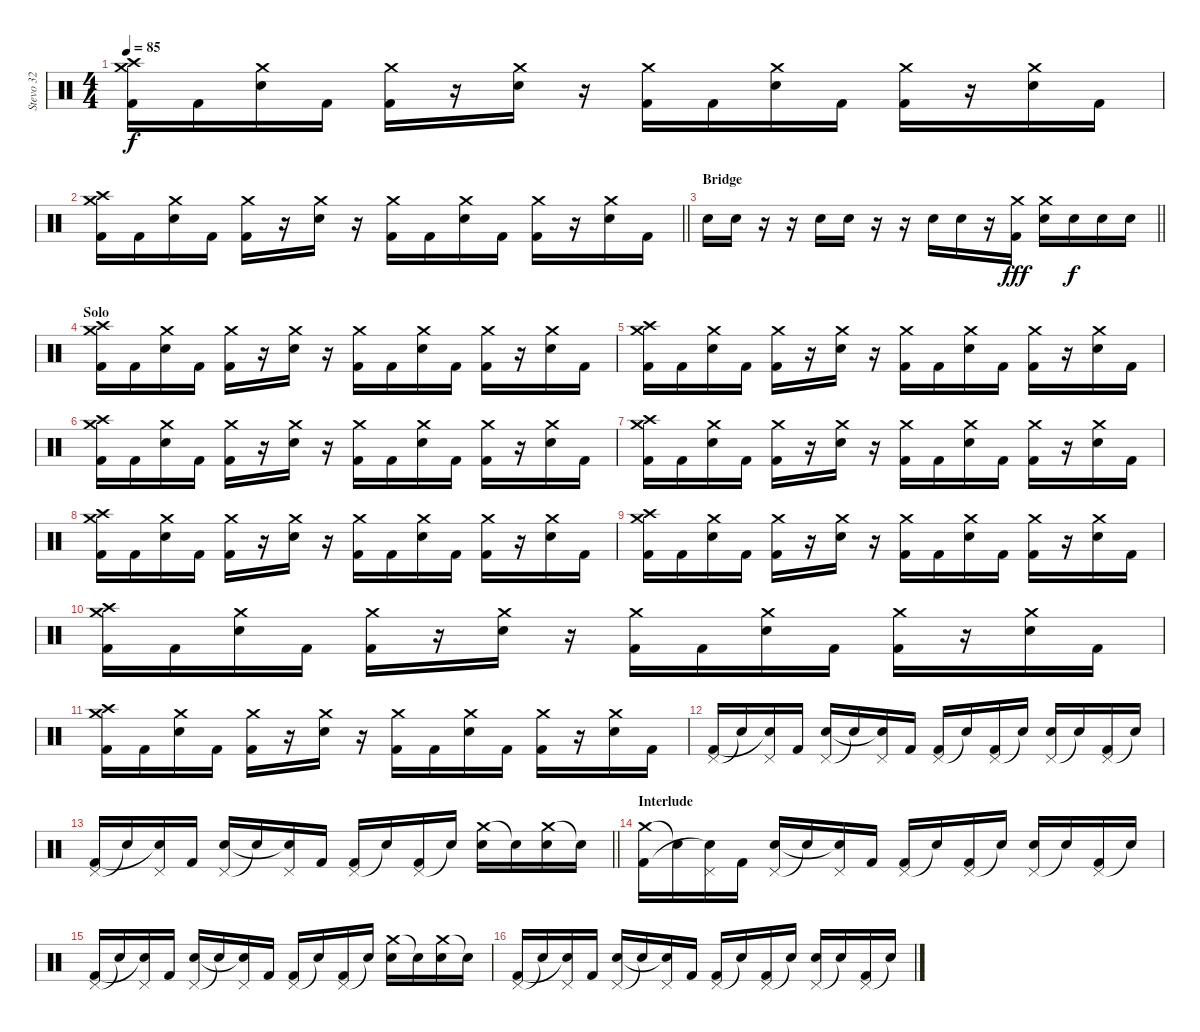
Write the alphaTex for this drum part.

\track ("Stevo 32" "Stevo 32") {instrument percussion}
\staff {score}
\articulation defaults
\ts (4 4)
\tempo 85
\clef neutral
\ks c
("Crash high (hit)" "Crash medium (hit)" "Kick (hit) 2").16{dy f} "Kick (hit) 2".16 ("Crash medium (hit)" "Electric Snare (hit)").16 "Kick (hit) 2".16 ("Crash medium (hit)" "Kick (hit) 2").16 r.16 ("Crash medium (hit)" "Electric Snare (hit)").16 r.16 ("Crash medium (hit)" "Kick (hit) 2").16 "Kick (hit) 2".16 ("Crash medium (hit)" "Electric Snare (hit)").16 "Kick (hit) 2".16 ("Crash medium (hit)" "Kick (hit) 2").16 r.16 ("Crash medium (hit)" "Electric Snare (hit)").16 "Kick (hit) 2".16 |
\barLineRight lightlight
("Crash high (hit)" "Crash medium (hit)" "Kick (hit) 2").16 "Kick (hit) 2".16 ("Crash medium (hit)" "Electric Snare (hit)").16 "Kick (hit) 2".16 ("Crash medium (hit)" "Kick (hit) 2").16 r.16 ("Crash medium (hit)" "Electric Snare (hit)").16 r.16 ("Crash medium (hit)" "Kick (hit) 2").16 "Kick (hit) 2".16 ("Crash medium (hit)" "Electric Snare (hit)").16 "Kick (hit) 2".16 ("Crash medium (hit)" "Kick (hit) 2").16 r.16 ("Crash medium (hit)" "Electric Snare (hit)").16 "Kick (hit) 2".16 |
\section ("" "Bridge")
\barLineRight lightlight "Electric Snare (hit)".16 "Electric Snare (hit)".16
r.16 r.16 "Electric Snare (hit)".16 "Electric Snare (hit)".16 r.16 r.16 "Electric Snare (hit)".16 "Electric Snare (hit)".16 r.16 ("Crash medium (hit)" "Kick (hit) 2").16{dy fff} ("Crash medium (hit)" "Electric Snare (hit)").16 "Electric Snare (hit)".16{dy f} "Electric Snare (hit)".16 "Electric Snare (hit)".16 |
\section ("" "Solo")
("Crash high (hit)" "Crash medium (hit)" "Kick (hit) 2").16 "Kick (hit) 2".16 ("Crash medium (hit)" "Electric Snare (hit)").16 "Kick (hit) 2".16 ("Crash medium (hit)" "Kick (hit) 2").16 r.16 ("Crash medium (hit)" "Electric Snare (hit)").16 r.16 ("Crash medium (hit)" "Kick (hit) 2").16 "Kick (hit) 2".16 ("Crash medium (hit)" "Electric Snare (hit)").16 "Kick (hit) 2".16 ("Crash medium (hit)" "Kick (hit) 2").16 r.16 ("Crash medium (hit)" "Electric Snare (hit)").16 "Kick (hit) 2".16 |
("Crash high (hit)" "Crash medium (hit)" "Kick (hit) 2").16 "Kick (hit) 2".16 ("Crash medium (hit)" "Electric Snare (hit)").16 "Kick (hit) 2".16 ("Crash medium (hit)" "Kick (hit) 2").16 r.16 ("Crash medium (hit)" "Electric Snare (hit)").16 r.16 ("Crash medium (hit)" "Kick (hit) 2").16 "Kick (hit) 2".16 ("Crash medium (hit)" "Electric Snare (hit)").16 "Kick (hit) 2".16 ("Crash medium (hit)" "Kick (hit) 2").16 r.16 ("Crash medium (hit)" "Electric Snare (hit)").16 "Kick (hit) 2".16 |
("Crash high (hit)" "Crash medium (hit)" "Kick (hit) 2").16 "Kick (hit) 2".16 ("Crash medium (hit)" "Electric Snare (hit)").16 "Kick (hit) 2".16 ("Crash medium (hit)" "Kick (hit) 2").16 r.16 ("Crash medium (hit)" "Electric Snare (hit)").16 r.16 ("Crash medium (hit)" "Kick (hit) 2").16 "Kick (hit) 2".16 ("Crash medium (hit)" "Electric Snare (hit)").16 "Kick (hit) 2".16 ("Crash medium (hit)" "Kick (hit) 2").16 r.16 ("Crash medium (hit)" "Electric Snare (hit)").16 "Kick (hit) 2".16 |
("Crash high (hit)" "Crash medium (hit)" "Kick (hit) 2").16 "Kick (hit) 2".16 ("Crash medium (hit)" "Electric Snare (hit)").16 "Kick (hit) 2".16 ("Crash medium (hit)" "Kick (hit) 2").16 r.16 ("Crash medium (hit)" "Electric Snare (hit)").16 r.16 ("Crash medium (hit)" "Kick (hit) 2").16 "Kick (hit) 2".16 ("Crash medium (hit)" "Electric Snare (hit)").16 "Kick (hit) 2".16 ("Crash medium (hit)" "Kick (hit) 2").16 r.16 ("Crash medium (hit)" "Electric Snare (hit)").16 "Kick (hit) 2".16 |
("Crash high (hit)" "Crash medium (hit)" "Kick (hit) 2").16 "Kick (hit) 2".16 ("Crash medium (hit)" "Electric Snare (hit)").16 "Kick (hit) 2".16 ("Crash medium (hit)" "Kick (hit) 2").16 r.16 ("Crash medium (hit)" "Electric Snare (hit)").16 r.16 ("Crash medium (hit)" "Kick (hit) 2").16 "Kick (hit) 2".16 ("Crash medium (hit)" "Electric Snare (hit)").16 "Kick (hit) 2".16 ("Crash medium (hit)" "Kick (hit) 2").16 r.16 ("Crash medium (hit)" "Electric Snare (hit)").16 "Kick (hit) 2".16 |
("Crash high (hit)" "Crash medium (hit)" "Kick (hit) 2").16 "Kick (hit) 2".16 ("Crash medium (hit)" "Electric Snare (hit)").16 "Kick (hit) 2".16 ("Crash medium (hit)" "Kick (hit) 2").16 r.16 ("Crash medium (hit)" "Electric Snare (hit)").16 r.16 ("Crash medium (hit)" "Kick (hit) 2").16 "Kick (hit) 2".16 ("Crash medium (hit)" "Electric Snare (hit)").16 "Kick (hit) 2".16 ("Crash medium (hit)" "Kick (hit) 2").16 r.16 ("Crash medium (hit)" "Electric Snare (hit)").16 "Kick (hit) 2".16 |
("Crash high (hit)" "Crash medium (hit)" "Kick (hit) 2").16 "Kick (hit) 2".16 ("Crash medium (hit)" "Electric Snare (hit)").16 "Kick (hit) 2".16 ("Crash medium (hit)" "Kick (hit) 2").16 r.16 ("Crash medium (hit)" "Electric Snare (hit)").16 r.16 ("Crash medium (hit)" "Kick (hit) 2").16 "Kick (hit) 2".16 ("Crash medium (hit)" "Electric Snare (hit)").16 "Kick (hit) 2".16 ("Crash medium (hit)" "Kick (hit) 2").16 r.16 ("Crash medium (hit)" "Electric Snare (hit)").16 "Kick (hit) 2".16 |
("Crash high (hit)" "Crash medium (hit)" "Kick (hit) 2").16 "Kick (hit) 2".16 ("Crash medium (hit)" "Electric Snare (hit)").16 "Kick (hit) 2".16 ("Crash medium (hit)" "Kick (hit) 2").16 r.16 ("Crash medium (hit)" "Electric Snare (hit)").16 r.16 ("Crash medium (hit)" "Kick (hit) 2").16 "Kick (hit) 2".16 ("Crash medium (hit)" "Electric Snare (hit)").16 "Kick (hit) 2".16 ("Crash medium (hit)" "Kick (hit) 2").16 r.16 ("Crash medium (hit)" "Electric Snare (hit)").16 "Kick (hit) 2".16 |
("Pedal Hi-Hat (hit)" "Kick (hit) 2").16 "Snare (hit)"{t}.16 ("Pedal Hi-Hat (hit)" "Snare (hit)"{t}).16 "Kick (hit) 2".16 ("Pedal Hi-Hat (hit)" "Electric Snare (hit)").16 "Snare (hit)"{t}.16 ("Pedal Hi-Hat (hit)" "Snare (hit)"{t}).16 "Kick (hit) 2".16 ("Pedal Hi-Hat (hit)" "Kick (hit) 2").16 "Snare (hit)"{t}.16 ("Pedal Hi-Hat (hit)" "Kick (hit) 2").16 "Snare (hit)"{t}.16 ("Pedal Hi-Hat (hit)" "Electric Snare (hit)").16 "Snare (hit)"{t}.16 ("Pedal Hi-Hat (hit)" "Kick (hit) 2").16 "Snare (hit)"{t}.16 |
\barLineRight lightlight
("Pedal Hi-Hat (hit)" "Kick (hit) 2").16 "Snare (hit)"{t}.16 ("Pedal Hi-Hat (hit)" "Snare (hit)"{t}).16 "Kick (hit) 2".16 ("Pedal Hi-Hat (hit)" "Electric Snare (hit)").16 "Snare (hit)"{t}.16 ("Pedal Hi-Hat (hit)" "Snare (hit)"{t}).16 "Kick (hit) 2".16 ("Pedal Hi-Hat (hit)" "Kick (hit) 2").16 "Snare (hit)"{t}.16 ("Pedal Hi-Hat (hit)" "Kick (hit) 2").16 "Snare (hit)"{t}.16 ("Crash medium (hit)" "Electric Snare (hit)").16 "Snare (hit)"{t}.16 ("Crash medium (hit)" "Electric Snare (hit)").16 "Snare (hit)"{t}.16 |
\section ("" "Interlude")
("Crash medium (hit)" "Kick (hit) 2").16 "Snare (hit)"{t}.16 ("Pedal Hi-Hat (hit)" "Snare (hit)"{t}).16 "Kick (hit) 2".16 ("Pedal Hi-Hat (hit)" "Electric Snare (hit)").16 "Snare (hit)"{t}.16 ("Pedal Hi-Hat (hit)" "Snare (hit)"{t}).16 "Kick (hit) 2".16 ("Pedal Hi-Hat (hit)" "Kick (hit) 2").16 "Snare (hit)"{t}.16 ("Pedal Hi-Hat (hit)" "Kick (hit) 2").16 "Snare (hit)"{t}.16 ("Pedal Hi-Hat (hit)" "Electric Snare (hit)").16 "Snare (hit)"{t}.16 ("Pedal Hi-Hat (hit)" "Kick (hit) 2").16 "Snare (hit)"{t}.16 |
("Pedal Hi-Hat (hit)" "Kick (hit) 2").16 "Snare (hit)"{t}.16 ("Pedal Hi-Hat (hit)" "Snare (hit)"{t}).16 "Kick (hit) 2".16 ("Pedal Hi-Hat (hit)" "Electric Snare (hit)").16 "Snare (hit)"{t}.16 ("Pedal Hi-Hat (hit)" "Snare (hit)"{t}).16 "Kick (hit) 2".16 ("Pedal Hi-Hat (hit)" "Kick (hit) 2").16 "Snare (hit)"{t}.16 ("Pedal Hi-Hat (hit)" "Kick (hit) 2").16 "Snare (hit)"{t}.16 ("Crash medium (hit)" "Electric Snare (hit)").16 "Snare (hit)"{t}.16 ("Crash medium (hit)" "Electric Snare (hit)").16 "Snare (hit)"{t}.16 |
("Pedal Hi-Hat (hit)" "Kick (hit) 2").16 "Snare (hit)"{t}.16 ("Pedal Hi-Hat (hit)" "Snare (hit)"{t}).16 "Kick (hit) 2".16 ("Pedal Hi-Hat (hit)" "Electric Snare (hit)").16 "Snare (hit)"{t}.16 ("Pedal Hi-Hat (hit)" "Snare (hit)"{t}).16 "Kick (hit) 2".16 ("Pedal Hi-Hat (hit)" "Kick (hit) 2").16 "Snare (hit)"{t}.16 ("Pedal Hi-Hat (hit)" "Kick (hit) 2").16 "Snare (hit)"{t}.16 ("Pedal Hi-Hat (hit)" "Electric Snare (hit)").16 "Snare (hit)"{t}.16 ("Pedal Hi-Hat (hit)" "Kick (hit) 2").16 "Snare (hit)"{t}.16
